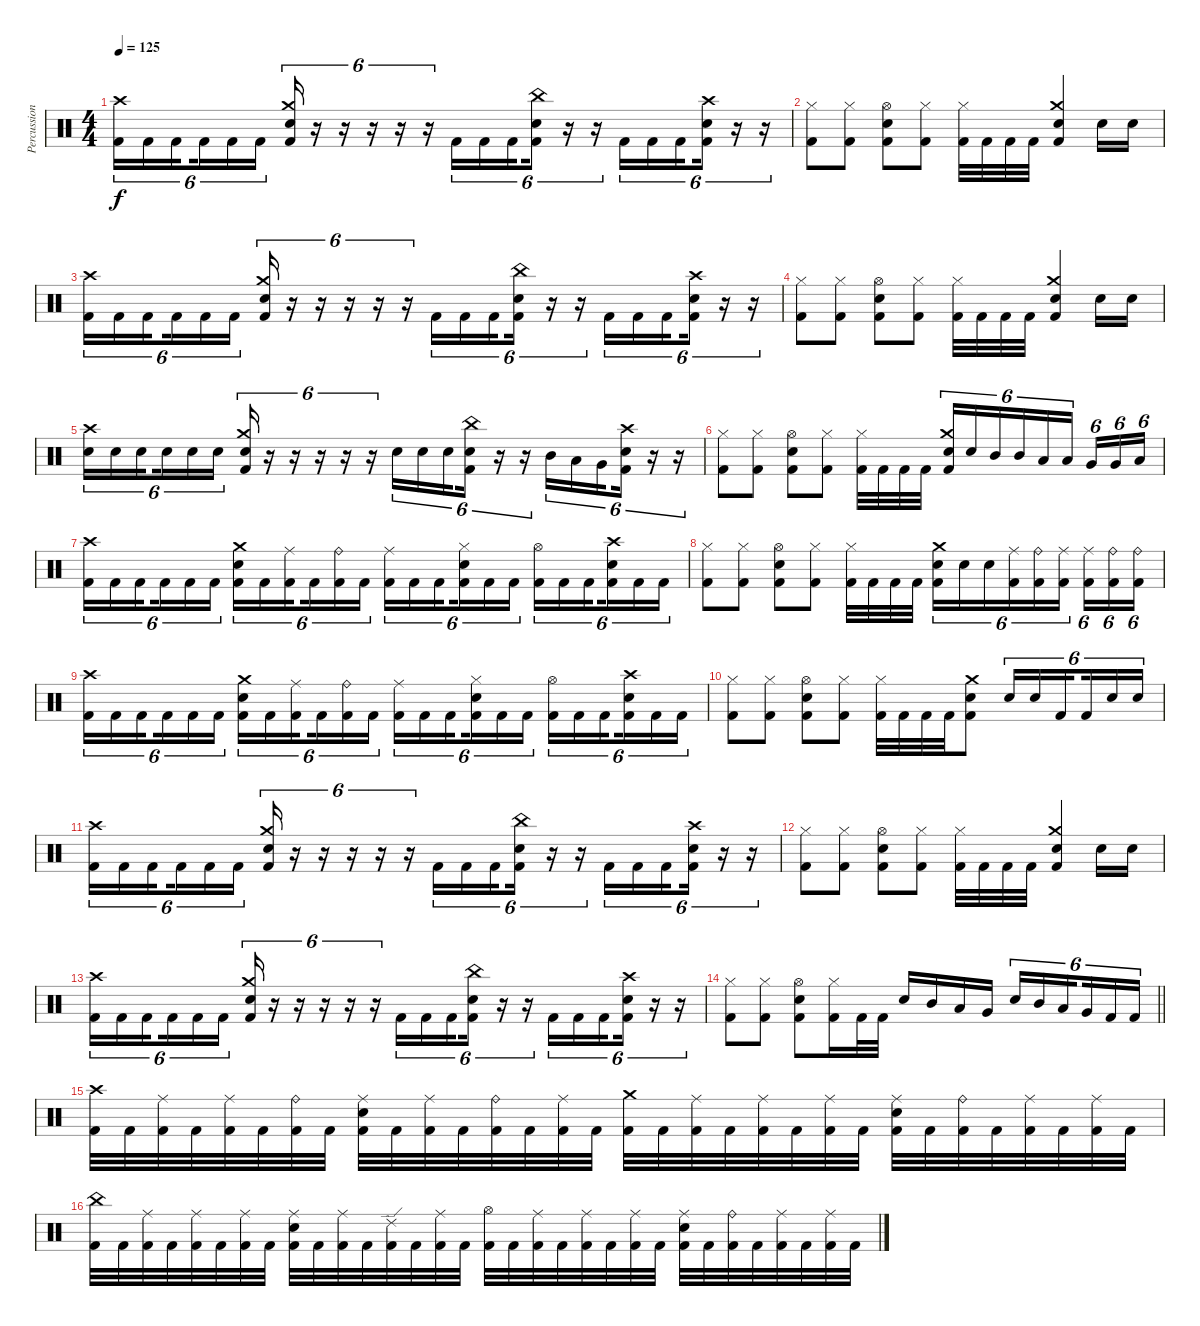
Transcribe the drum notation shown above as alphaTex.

\track ("Percussions" "Percussion") {instrument percussion}
\staff {score}
\articulation defaults
\ts (4 4)
\tempo 125
\clef neutral
\ks c
("Crash high (hit)" "Kick (hit) 2").16{tu (6 4) dy f} "Kick (hit) 2".16{tu (6 4)} "Kick (hit) 2".16{tu (6 4) beam splitsecondary} "Kick (hit) 2".16{tu (6 4)} "Kick (hit) 2".16{tu (6 4)} "Kick (hit) 2".16{tu (6 4)} ("Crash medium (hit)" "Electric Snare (hit)" "Kick (hit) 2").16{tu (6 4)} r.16{tu (6 4)} r.16{tu (6 4)} r.16{tu (6 4)} r.16{tu (6 4)} r.16{tu (6 4)} "Kick (hit) 2".16{tu (6 4)} "Kick (hit) 2".16{tu (6 4)} "Kick (hit) 2".16{tu (6 4) beam splitsecondary} ("China (hit)" "Electric Snare (hit)" "Kick (hit) 2").16{tu (6 4)} r.16{tu (6 4)} r.16{tu (6 4)} "Kick (hit) 2".16{tu (6 4)} "Kick (hit) 2".16{tu (6 4)} "Kick (hit) 2".16{tu (6 4) beam splitsecondary} ("Crash high (hit)" "Electric Snare (hit)" "Kick (hit) 2").16{tu (6 4)} r.16{tu (6 4)} r.16{tu (6 4)} |
("Hi-Hat (closed)" "Kick (hit) 2").8 ("Hi-Hat (closed)" "Kick (hit) 2").8 ("Hi-Hat (open)" "Electric Snare (hit)" "Kick (hit) 2").8 ("Hi-Hat (closed)" "Kick (hit) 2").8 ("Hi-Hat (closed)" "Kick (hit) 2").32 "Kick (hit) 2".32 "Kick (hit) 2".32 "Kick (hit) 2".32 ("Crash medium (hit)" "Electric Snare (hit)" "Kick (hit) 2").4 "Electric Snare (hit)".16 "Electric Snare (hit)".16 |
("Crash high (hit)" "Kick (hit) 2").16{tu (6 4)} "Kick (hit) 2".16{tu (6 4)} "Kick (hit) 2".16{tu (6 4) beam splitsecondary} "Kick (hit) 2".16{tu (6 4)} "Kick (hit) 2".16{tu (6 4)} "Kick (hit) 2".16{tu (6 4)} ("Crash medium (hit)" "Electric Snare (hit)" "Kick (hit) 2").16{tu (6 4)} r.16{tu (6 4)} r.16{tu (6 4)} r.16{tu (6 4)} r.16{tu (6 4)} r.16{tu (6 4)} "Kick (hit) 2".16{tu (6 4)} "Kick (hit) 2".16{tu (6 4)} "Kick (hit) 2".16{tu (6 4) beam splitsecondary} ("China (hit)" "Electric Snare (hit)" "Kick (hit) 2").16{tu (6 4)} r.16{tu (6 4)} r.16{tu (6 4)} "Kick (hit) 2".16{tu (6 4)} "Kick (hit) 2".16{tu (6 4)} "Kick (hit) 2".16{tu (6 4) beam splitsecondary} ("Crash high (hit)" "Electric Snare (hit)" "Kick (hit) 2").16{tu (6 4)} r.16{tu (6 4)} r.16{tu (6 4)} |
("Hi-Hat (closed)" "Kick (hit) 2").8 ("Hi-Hat (closed)" "Kick (hit) 2").8 ("Hi-Hat (open)" "Electric Snare (hit)" "Kick (hit) 2").8 ("Hi-Hat (closed)" "Kick (hit) 2").8 ("Hi-Hat (closed)" "Kick (hit) 2").32 "Kick (hit) 2".32 "Kick (hit) 2".32 "Kick (hit) 2".32 ("Crash medium (hit)" "Electric Snare (hit)" "Kick (hit) 2").4 "Electric Snare (hit)".16 "Electric Snare (hit)".16 |
("Crash high (hit)" "Electric Snare (hit)").16{tu (6 4)} "Electric Snare (hit)".16{tu (6 4)} "Electric Snare (hit)".16{tu (6 4) beam splitsecondary} "Electric Snare (hit)".16{tu (6 4)} "Electric Snare (hit)".16{tu (6 4)} "Electric Snare (hit)".16{tu (6 4)} ("Crash medium (hit)" "Electric Snare (hit)" "Kick (hit) 2").16{tu (6 4)} r.16{tu (6 4)} r.16{tu (6 4)} r.16{tu (6 4)} r.16{tu (6 4)} r.16{tu (6 4)} "Electric Snare (hit)".16{tu (6 4)} "Electric Snare (hit)".16{tu (6 4)} "Electric Snare (hit)".16{tu (6 4) beam splitsecondary} ("China (hit)" "Electric Snare (hit)" "Kick (hit) 2").16{tu (6 4)} r.16{tu (6 4)} r.16{tu (6 4)} "Mid Tom (hit)".16{tu (6 4)} "Low Tom (hit)".16{tu (6 4)} "Very Low Tom (hit)".16{tu (6 4) beam splitsecondary} ("Crash high (hit)" "Electric Snare (hit)" "Kick (hit) 2").16{tu (6 4)} r.16{tu (6 4)} r.16{tu (6 4)} |
("Hi-Hat (closed)" "Kick (hit) 2").8 ("Hi-Hat (closed)" "Kick (hit) 2").8 ("Hi-Hat (open)" "Electric Snare (hit)" "Kick (hit) 2").8 ("Hi-Hat (closed)" "Kick (hit) 2").8 ("Hi-Hat (closed)" "Kick (hit) 2").32 "Kick (hit) 2".32 "Kick (hit) 2".32 "Kick (hit) 2".32{beam splitsecondary} ("Crash medium (hit)" "Electric Snare (hit)" "Kick (hit) 2").16{tu (6 4)} "Electric Snare (hit)".16{tu (6 4)} "Mid Tom (hit)".16{tu (6 4)} "Mid Tom (hit)".16{tu (6 4)} "Low Tom (hit)".16{tu (6 4)} "Low Tom (hit)".16{tu (6 4) beam splitsecondary} "Very Low Tom (hit)".16{tu (6 4)} "Very Low Tom (hit)".16{tu (6 4)} "Low Floor Tom (hit)".16{tu (6 4)} |
("Crash high (hit)" "Kick (hit) 2").16{tu (6 4)} "Kick (hit) 2".16{tu (6 4)} "Kick (hit) 2".16{tu (6 4) beam splitsecondary} "Kick (hit) 2".16{tu (6 4)} "Kick (hit) 2".16{tu (6 4)} "Kick (hit) 2".16{tu (6 4)} ("Crash medium (hit)" "Electric Snare (hit)" "Kick (hit) 2").16{tu (6 4)} "Kick (hit) 2".16{tu (6 4)} ("Ride (middle)" "Kick (hit) 2").16{tu (6 4) beam splitsecondary} "Kick (hit) 2".16{tu (6 4)} ("Ride (bell)" "Kick (hit) 2").16{tu (6 4)} "Kick (hit) 2".16{tu (6 4)} ("Ride (middle)" "Kick (hit) 2").16{tu (6 4)} "Kick (hit) 2".16{tu (6 4)} "Kick (hit) 2".16{tu (6 4) beam splitsecondary} ("Hi-Hat (closed)" "Electric Snare (hit)" "Kick (hit) 2").16{tu (6 4)} "Kick (hit) 2".16{tu (6 4)} "Kick (hit) 2".16{tu (6 4)} ("Hi-Hat (open)" "Kick (hit) 2").16{tu (6 4)} "Kick (hit) 2".16{tu (6 4)} "Kick (hit) 2".16{tu (6 4) beam splitsecondary} ("Crash high (hit)" "Electric Snare (hit)" "Kick (hit) 2").16{tu (6 4)} "Kick (hit) 2".16{tu (6 4)} "Kick (hit) 2".16{tu (6 4)} |
("Hi-Hat (closed)" "Kick (hit) 2").8 ("Hi-Hat (closed)" "Kick (hit) 2").8 ("Hi-Hat (open)" "Electric Snare (hit)" "Kick (hit) 2").8 ("Hi-Hat (closed)" "Kick (hit) 2").8 ("Hi-Hat (closed)" "Kick (hit) 2").32 "Kick (hit) 2".32 "Kick (hit) 2".32 "Kick (hit) 2".32{beam splitsecondary} ("Crash medium (hit)" "Electric Snare (hit)" "Kick (hit) 2").16{tu (6 4)} "Electric Snare (hit)".16{tu (6 4)} "Electric Snare (hit)".16{tu (6 4)} ("Ride (middle)" "Kick (hit) 2").16{tu (6 4)} ("Ride (bell)" "Kick (hit) 2").16{tu (6 4)} ("Ride (middle)" "Kick (hit) 2").16{tu (6 4) beam splitsecondary} ("Ride (middle)" "Kick (hit) 2").16{tu (6 4)} ("Ride (bell)" "Kick (hit) 2").16{tu (6 4)} ("Ride (bell)" "Kick (hit) 2").16{tu (6 4)} |
("Crash high (hit)" "Kick (hit) 2").16{tu (6 4)} "Kick (hit) 2".16{tu (6 4)} "Kick (hit) 2".16{tu (6 4) beam splitsecondary} "Kick (hit) 2".16{tu (6 4)} "Kick (hit) 2".16{tu (6 4)} "Kick (hit) 2".16{tu (6 4)} ("Crash medium (hit)" "Electric Snare (hit)" "Kick (hit) 2").16{tu (6 4)} "Kick (hit) 2".16{tu (6 4)} ("Ride (middle)" "Kick (hit) 2").16{tu (6 4) beam splitsecondary} "Kick (hit) 2".16{tu (6 4)} ("Ride (bell)" "Kick (hit) 2").16{tu (6 4)} "Kick (hit) 2".16{tu (6 4)} ("Ride (middle)" "Kick (hit) 2").16{tu (6 4)} "Kick (hit) 2".16{tu (6 4)} "Kick (hit) 2".16{tu (6 4) beam splitsecondary} ("Hi-Hat (closed)" "Electric Snare (hit)" "Kick (hit) 2").16{tu (6 4)} "Kick (hit) 2".16{tu (6 4)} "Kick (hit) 2".16{tu (6 4)} ("Hi-Hat (open)" "Kick (hit) 2").16{tu (6 4)} "Kick (hit) 2".16{tu (6 4)} "Kick (hit) 2".16{tu (6 4) beam splitsecondary} ("Crash high (hit)" "Electric Snare (hit)" "Kick (hit) 2").16{tu (6 4)} "Kick (hit) 2".16{tu (6 4)} "Kick (hit) 2".16{tu (6 4)} |
("Hi-Hat (closed)" "Kick (hit) 2").8 ("Hi-Hat (closed)" "Kick (hit) 2").8 ("Hi-Hat (open)" "Electric Snare (hit)" "Kick (hit) 2").8 ("Hi-Hat (closed)" "Kick (hit) 2").8 ("Hi-Hat (closed)" "Kick (hit) 2").32 "Kick (hit) 2".32 "Kick (hit) 2".32 "Kick (hit) 2".32 ("Crash medium (hit)" "Electric Snare (hit)" "Kick (hit) 2").8 "Electric Snare (hit)".16{tu (6 4)} "Electric Snare (hit)".16{tu (6 4)} "Kick (hit) 2".16{tu (6 4) beam splitsecondary} "Kick (hit) 2".16{tu (6 4)} "Electric Snare (hit)".16{tu (6 4)} "Electric Snare (hit)".16{tu (6 4)} |
("Crash high (hit)" "Kick (hit) 2").16{tu (6 4)} "Kick (hit) 2".16{tu (6 4)} "Kick (hit) 2".16{tu (6 4) beam splitsecondary} "Kick (hit) 2".16{tu (6 4)} "Kick (hit) 2".16{tu (6 4)} "Kick (hit) 2".16{tu (6 4)} ("Crash medium (hit)" "Electric Snare (hit)" "Kick (hit) 2").16{tu (6 4)} r.16{tu (6 4)} r.16{tu (6 4)} r.16{tu (6 4)} r.16{tu (6 4)} r.16{tu (6 4)} "Kick (hit) 2".16{tu (6 4)} "Kick (hit) 2".16{tu (6 4)} "Kick (hit) 2".16{tu (6 4) beam splitsecondary} ("China (hit)" "Electric Snare (hit)" "Kick (hit) 2").16{tu (6 4)} r.16{tu (6 4)} r.16{tu (6 4)} "Kick (hit) 2".16{tu (6 4)} "Kick (hit) 2".16{tu (6 4)} "Kick (hit) 2".16{tu (6 4) beam splitsecondary} ("Crash high (hit)" "Electric Snare (hit)" "Kick (hit) 2").16{tu (6 4)} r.16{tu (6 4)} r.16{tu (6 4)} |
("Hi-Hat (closed)" "Kick (hit) 2").8 ("Hi-Hat (closed)" "Kick (hit) 2").8 ("Hi-Hat (open)" "Electric Snare (hit)" "Kick (hit) 2").8 ("Hi-Hat (closed)" "Kick (hit) 2").8 ("Hi-Hat (closed)" "Kick (hit) 2").32 "Kick (hit) 2".32 "Kick (hit) 2".32 "Kick (hit) 2".32 ("Crash medium (hit)" "Electric Snare (hit)" "Kick (hit) 2").4 "Electric Snare (hit)".16 "Electric Snare (hit)".16 |
("Crash high (hit)" "Kick (hit) 2").16{tu (6 4)} "Kick (hit) 2".16{tu (6 4)} "Kick (hit) 2".16{tu (6 4) beam splitsecondary} "Kick (hit) 2".16{tu (6 4)} "Kick (hit) 2".16{tu (6 4)} "Kick (hit) 2".16{tu (6 4)} ("Crash medium (hit)" "Electric Snare (hit)" "Kick (hit) 2").16{tu (6 4)} r.16{tu (6 4)} r.16{tu (6 4)} r.16{tu (6 4)} r.16{tu (6 4)} r.16{tu (6 4)} "Kick (hit) 2".16{tu (6 4)} "Kick (hit) 2".16{tu (6 4)} "Kick (hit) 2".16{tu (6 4) beam splitsecondary} ("China (hit)" "Electric Snare (hit)" "Kick (hit) 2").16{tu (6 4)} r.16{tu (6 4)} r.16{tu (6 4)} "Kick (hit) 2".16{tu (6 4)} "Kick (hit) 2".16{tu (6 4)} "Kick (hit) 2".16{tu (6 4) beam splitsecondary} ("Crash high (hit)" "Electric Snare (hit)" "Kick (hit) 2").16{tu (6 4)} r.16{tu (6 4)} r.16{tu (6 4)} |
\barLineRight lightlight
("Hi-Hat (closed)" "Kick (hit) 2").8 ("Hi-Hat (closed)" "Kick (hit) 2").8 ("Hi-Hat (open)" "Electric Snare (hit)" "Kick (hit) 2").8 ("Hi-Hat (closed)" "Kick (hit) 2").16 "Kick (hit) 2".32 "Kick (hit) 2".32 "Electric Snare (hit)".16 "Mid Tom (hit)".16 "Low Tom (hit)".16 "Very Low Tom (hit)".16 "Electric Snare (hit)".16{tu (6 4)} "Mid Tom (hit)".16{tu (6 4)} "Low Tom (hit)".16{tu (6 4) beam splitsecondary} "Very Low Tom (hit)".16{tu (6 4)} "Kick (hit) 2".16{tu (6 4)} "Kick (hit) 2".16{tu (6 4)} |
("Crash high (hit)" "Kick (hit) 2").32 "Kick (hit) 2".32 ("Ride (middle)" "Kick (hit) 2").32 "Kick (hit) 2".32 ("Ride (middle)" "Kick (hit) 2").32 "Kick (hit) 2".32 ("Ride (bell)" "Kick (hit) 2").32 "Kick (hit) 2".32 ("Ride (middle)" "Electric Snare (hit)" "Kick (hit) 2").32 "Kick (hit) 2".32 ("Ride (middle)" "Kick (hit) 2").32 "Kick (hit) 2".32 ("Ride (bell)" "Kick (hit) 2").32 "Kick (hit) 2".32 ("Ride (middle)" "Kick (hit) 2").32 "Kick (hit) 2".32 ("Crash medium (hit)" "Kick (hit) 2").32 "Kick (hit) 2".32 ("Ride (middle)" "Kick (hit) 2").32 "Kick (hit) 2".32 ("Ride (middle)" "Kick (hit) 2").32 "Kick (hit) 2".32 ("Ride (middle)" "Kick (hit) 2").32 "Kick (hit) 2".32 ("Ride (middle)" "Electric Snare (hit)" "Kick (hit) 2").32 "Kick (hit) 2".32 ("Ride (bell)" "Kick (hit) 2").32 "Kick (hit) 2".32 ("Ride (middle)" "Kick (hit) 2").32 "Kick (hit) 2".32 ("Ride (middle)" "Kick (hit) 2").32 "Kick (hit) 2".32 |
("China (hit)" "Kick (hit) 2").32 "Kick (hit) 2".32 ("Ride (middle)" "Kick (hit) 2").32 "Kick (hit) 2".32 ("Ride (middle)" "Kick (hit) 2").32 "Kick (hit) 2".32 ("Ride (middle)" "Kick (hit) 2").32 "Kick (hit) 2".32 ("Ride (middle)" "Electric Snare (hit)" "Kick (hit) 2").32 "Kick (hit) 2".32 ("Ride (middle)" "Kick (hit) 2").32 "Kick (hit) 2".32 ("Ride (edge) 2" "Kick (hit) 2").32 "Kick (hit) 2".32 ("Ride (middle)" "Kick (hit) 2").32 "Kick (hit) 2".32 ("Hi-Hat (open)" "Kick (hit) 2").32 "Kick (hit) 2".32 ("Ride (middle)" "Kick (hit) 2").32 "Kick (hit) 2".32 ("Ride (middle)" "Kick (hit) 2").32 "Kick (hit) 2".32 ("Ride (middle)" "Kick (hit) 2").32 "Kick (hit) 2".32 ("Ride (middle)" "Electric Snare (hit)" "Kick (hit) 2").32 "Kick (hit) 2".32 ("Ride (bell)" "Kick (hit) 2").32 "Kick (hit) 2".32 ("Ride (middle)" "Kick (hit) 2").32 "Kick (hit) 2".32 ("Ride (middle)" "Kick (hit) 2").32 "Kick (hit) 2".32
